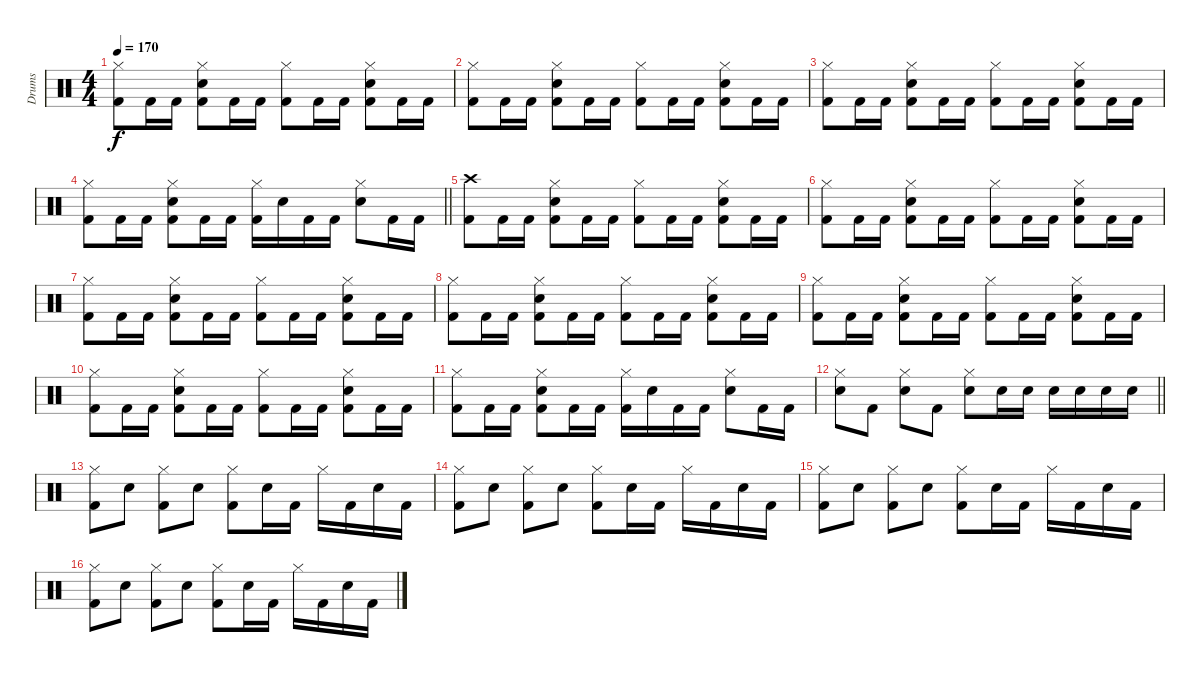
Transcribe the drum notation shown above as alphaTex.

\track ("Drums" "Drums") {instrument percussion}
\staff {score}
\articulation defaults
\ts (4 4)
\tempo 170
\clef neutral
\ks c
("Hi-Hat (closed)" "Kick (hit) 2").8{dy f} "Kick (hit) 2".16 "Kick (hit) 2".16 ("Hi-Hat (closed)" "Snare (hit) 2" "Kick (hit) 2").8 "Kick (hit) 2".16 "Kick (hit) 2".16 ("Hi-Hat (closed)" "Kick (hit) 2").8 "Kick (hit) 2".16 "Kick (hit) 2".16 ("Hi-Hat (closed)" "Snare (hit) 2" "Kick (hit) 2").8 "Kick (hit) 2".16 "Kick (hit) 2".16 |
("Hi-Hat (closed)" "Kick (hit) 2").8 "Kick (hit) 2".16 "Kick (hit) 2".16 ("Hi-Hat (closed)" "Snare (hit) 2" "Kick (hit) 2").8 "Kick (hit) 2".16 "Kick (hit) 2".16 ("Hi-Hat (closed)" "Kick (hit) 2").8 "Kick (hit) 2".16 "Kick (hit) 2".16 ("Hi-Hat (closed)" "Snare (hit) 2" "Kick (hit) 2").8 "Kick (hit) 2".16 "Kick (hit) 2".16 |
("Hi-Hat (closed)" "Kick (hit) 2").8 "Kick (hit) 2".16 "Kick (hit) 2".16 ("Hi-Hat (closed)" "Snare (hit) 2" "Kick (hit) 2").8 "Kick (hit) 2".16 "Kick (hit) 2".16 ("Hi-Hat (closed)" "Kick (hit) 2").8 "Kick (hit) 2".16 "Kick (hit) 2".16 ("Hi-Hat (closed)" "Snare (hit) 2" "Kick (hit) 2").8 "Kick (hit) 2".16 "Kick (hit) 2".16 |
\barLineRight lightlight
("Hi-Hat (closed)" "Kick (hit) 2").8 "Kick (hit) 2".16 "Kick (hit) 2".16 ("Hi-Hat (closed)" "Snare (hit) 2" "Kick (hit) 2").8 "Kick (hit) 2".16 "Kick (hit) 2".16 ("Hi-Hat (closed)" "Kick (hit) 2").16 "Snare (hit) 2".16 "Kick (hit) 2".16 "Kick (hit) 2".16 ("Hi-Hat (closed)" "Snare (hit) 2").8 "Kick (hit) 2".16 "Kick (hit) 2".16 |
("Crash high (hit)" "Kick (hit) 2").8 "Kick (hit) 2".16 "Kick (hit) 2".16 ("Hi-Hat (closed)" "Snare (hit) 2" "Kick (hit) 2").8 "Kick (hit) 2".16 "Kick (hit) 2".16 ("Hi-Hat (closed)" "Kick (hit) 2").8 "Kick (hit) 2".16 "Kick (hit) 2".16 ("Hi-Hat (closed)" "Snare (hit) 2" "Kick (hit) 2").8 "Kick (hit) 2".16 "Kick (hit) 2".16 |
("Hi-Hat (closed)" "Kick (hit) 2").8 "Kick (hit) 2".16 "Kick (hit) 2".16 ("Hi-Hat (closed)" "Snare (hit) 2" "Kick (hit) 2").8 "Kick (hit) 2".16 "Kick (hit) 2".16 ("Hi-Hat (closed)" "Kick (hit) 2").8 "Kick (hit) 2".16 "Kick (hit) 2".16 ("Hi-Hat (closed)" "Snare (hit) 2" "Kick (hit) 2").8 "Kick (hit) 2".16 "Kick (hit) 2".16 |
("Hi-Hat (closed)" "Kick (hit) 2").8 "Kick (hit) 2".16 "Kick (hit) 2".16 ("Hi-Hat (closed)" "Snare (hit) 2" "Kick (hit) 2").8 "Kick (hit) 2".16 "Kick (hit) 2".16 ("Hi-Hat (closed)" "Kick (hit) 2").8 "Kick (hit) 2".16 "Kick (hit) 2".16 ("Hi-Hat (closed)" "Snare (hit) 2" "Kick (hit) 2").8 "Kick (hit) 2".16 "Kick (hit) 2".16 |
("Hi-Hat (closed)" "Kick (hit) 2").8 "Kick (hit) 2".16 "Kick (hit) 2".16 ("Hi-Hat (closed)" "Snare (hit) 2" "Kick (hit) 2").8 "Kick (hit) 2".16 "Kick (hit) 2".16 ("Hi-Hat (closed)" "Kick (hit) 2").8 "Kick (hit) 2".16 "Kick (hit) 2".16 ("Hi-Hat (closed)" "Snare (hit) 2" "Kick (hit) 2").8 "Kick (hit) 2".16 "Kick (hit) 2".16 |
("Hi-Hat (closed)" "Kick (hit) 2").8 "Kick (hit) 2".16 "Kick (hit) 2".16 ("Hi-Hat (closed)" "Snare (hit) 2" "Kick (hit) 2").8 "Kick (hit) 2".16 "Kick (hit) 2".16 ("Hi-Hat (closed)" "Kick (hit) 2").8 "Kick (hit) 2".16 "Kick (hit) 2".16 ("Hi-Hat (closed)" "Snare (hit) 2" "Kick (hit) 2").8 "Kick (hit) 2".16 "Kick (hit) 2".16 |
("Hi-Hat (closed)" "Kick (hit) 2").8 "Kick (hit) 2".16 "Kick (hit) 2".16 ("Hi-Hat (closed)" "Snare (hit) 2" "Kick (hit) 2").8 "Kick (hit) 2".16 "Kick (hit) 2".16 ("Hi-Hat (closed)" "Kick (hit) 2").8 "Kick (hit) 2".16 "Kick (hit) 2".16 ("Hi-Hat (closed)" "Snare (hit) 2" "Kick (hit) 2").8 "Kick (hit) 2".16 "Kick (hit) 2".16 |
("Hi-Hat (closed)" "Kick (hit) 2").8 "Kick (hit) 2".16 "Kick (hit) 2".16 ("Hi-Hat (closed)" "Snare (hit) 2" "Kick (hit) 2").8 "Kick (hit) 2".16 "Kick (hit) 2".16 ("Hi-Hat (closed)" "Kick (hit) 2").16 "Snare (hit) 2".16 "Kick (hit) 2".16 "Kick (hit) 2".16 ("Hi-Hat (closed)" "Snare (hit) 2").8 "Kick (hit) 2".16 "Kick (hit) 2".16 |
\barLineRight lightlight
("Hi-Hat (closed)" "Snare (hit) 2").8 "Kick (hit) 2".8 ("Hi-Hat (closed)" "Snare (hit) 2").8 "Kick (hit) 2".8 ("Hi-Hat (closed)" "Snare (hit) 2").8 "Snare (hit) 2".16 "Snare (hit) 2".16 "Snare (hit) 2".16 "Snare (hit) 2".16 "Snare (hit) 2".16 "Snare (hit) 2".16 |
("Hi-Hat (closed)" "Kick (hit) 2").8 "Snare (hit) 2".8 ("Hi-Hat (closed)" "Kick (hit) 2").8 "Snare (hit) 2".8 ("Hi-Hat (closed)" "Kick (hit) 2").8 "Snare (hit) 2".16 "Kick (hit) 2".16 "Hi-Hat (closed)".16 "Kick (hit) 2".16 "Snare (hit) 2".16 "Kick (hit) 2".16 |
("Hi-Hat (closed)" "Kick (hit) 2").8 "Snare (hit) 2".8 ("Hi-Hat (closed)" "Kick (hit) 2").8 "Snare (hit) 2".8 ("Hi-Hat (closed)" "Kick (hit) 2").8 "Snare (hit) 2".16 "Kick (hit) 2".16 "Hi-Hat (closed)".16 "Kick (hit) 2".16 "Snare (hit) 2".16 "Kick (hit) 2".16 |
("Hi-Hat (closed)" "Kick (hit) 2").8 "Snare (hit) 2".8 ("Hi-Hat (closed)" "Kick (hit) 2").8 "Snare (hit) 2".8 ("Hi-Hat (closed)" "Kick (hit) 2").8 "Snare (hit) 2".16 "Kick (hit) 2".16 "Hi-Hat (closed)".16 "Kick (hit) 2".16 "Snare (hit) 2".16 "Kick (hit) 2".16 |
("Hi-Hat (closed)" "Kick (hit) 2").8 "Snare (hit) 2".8 ("Hi-Hat (closed)" "Kick (hit) 2").8 "Snare (hit) 2".8 ("Hi-Hat (closed)" "Kick (hit) 2").8 "Snare (hit) 2".16 "Kick (hit) 2".16 "Hi-Hat (closed)".16 "Kick (hit) 2".16 "Snare (hit) 2".16 "Kick (hit) 2".16
